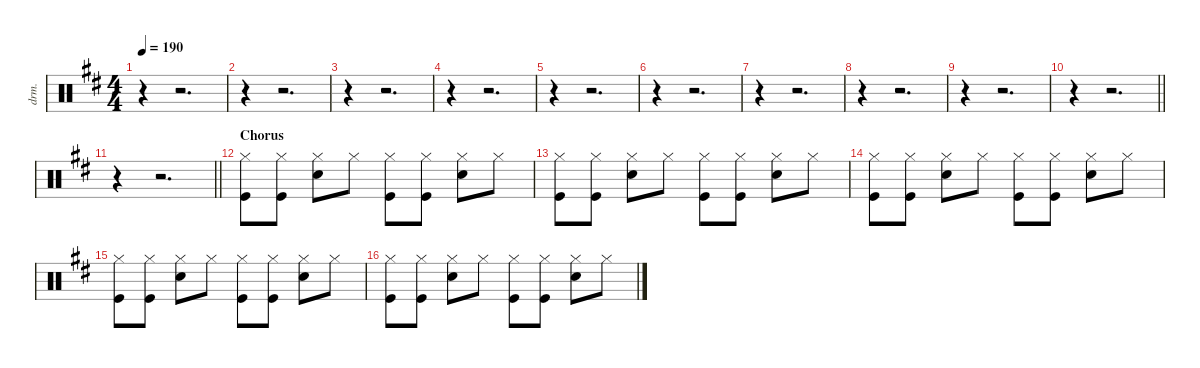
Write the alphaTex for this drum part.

\defaultSystemsLayout 4
\hideDynamics
\bracketExtendMode nobrackets
\otherSystemsTrackNameOrientation horizontal
\track ("Damon Wilson" "drm.") {instrument percussion}
\staff {score}
\articulation defaults
\ts (4 4)
\tempo 190
\clef neutral
\ks d
r.4{dy f beam Down} r.2{d beam Down} |
r.4{beam Down} r.2{d beam Down} |
r.4{beam Down} r.2{d beam Down} |
r.4{beam Down} r.2{d beam Down} |
r.4{beam Down} r.2{d beam Down} |
r.4{beam Down} r.2{d beam Down} |
r.4{beam Down} r.2{d beam Down} |
r.4{beam Down} r.2{d beam Down} |
r.4{beam Down} r.2{d beam Down} |
\barLineRight lightlight
r.4{beam Down} r.2{d beam Down} |
\barLineRight lightlight
r.4{beam Down} r.2{d beam Down} |
\section ("" "Chorus")
("Hi-Hat (closed)"{acc forcenatural} "Kick (hit)"{acc forcenatural}).8{beam Down} ("Hi-Hat (closed)"{acc forcenatural} "Kick (hit)"{acc forcenatural}).8{beam Down} ("Hi-Hat (closed)"{acc forcenatural} "Snare (hit) 2"{acc forcenatural}).8{beam Down} "Hi-Hat (closed)"{acc forcenatural}.8{beam Down} ("Hi-Hat (closed)"{acc forcenatural} "Kick (hit)"{acc forcenatural}).8{beam Down} ("Hi-Hat (closed)"{acc forcenatural} "Kick (hit)"{acc forcenatural}).8{beam Down} ("Hi-Hat (closed)"{acc forcenatural} "Snare (hit) 2"{acc forcenatural}).8{beam Down} "Hi-Hat (closed)"{acc forcenatural}.8{beam Down} |
("Hi-Hat (closed)"{acc forcenatural} "Kick (hit)"{acc forcenatural}).8{beam Down} ("Hi-Hat (closed)"{acc forcenatural} "Kick (hit)"{acc forcenatural}).8{beam Down} ("Hi-Hat (closed)"{acc forcenatural} "Snare (hit) 2"{acc forcenatural}).8{beam Down} "Hi-Hat (closed)"{acc forcenatural}.8{beam Down} ("Hi-Hat (closed)"{acc forcenatural} "Kick (hit)"{acc forcenatural}).8{beam Down} ("Hi-Hat (closed)"{acc forcenatural} "Kick (hit)"{acc forcenatural}).8{beam Down} ("Hi-Hat (closed)"{acc forcenatural} "Snare (hit) 2"{acc forcenatural}).8{beam Down} "Hi-Hat (closed)"{acc forcenatural}.8{beam Down} |
("Hi-Hat (closed)"{acc forcenatural} "Kick (hit)"{acc forcenatural}).8{beam Down} ("Hi-Hat (closed)"{acc forcenatural} "Kick (hit)"{acc forcenatural}).8{beam Down} ("Hi-Hat (closed)"{acc forcenatural} "Snare (hit) 2"{acc forcenatural}).8{beam Down} "Hi-Hat (closed)"{acc forcenatural}.8{beam Down} ("Hi-Hat (closed)"{acc forcenatural} "Kick (hit)"{acc forcenatural}).8{beam Down} ("Hi-Hat (closed)"{acc forcenatural} "Kick (hit)"{acc forcenatural}).8{beam Down} ("Hi-Hat (closed)"{acc forcenatural} "Snare (hit) 2"{acc forcenatural}).8{beam Down} "Hi-Hat (closed)"{acc forcenatural}.8{beam Down} |
("Hi-Hat (closed)"{acc forcenatural} "Kick (hit)"{acc forcenatural}).8{beam Down} ("Hi-Hat (closed)"{acc forcenatural} "Kick (hit)"{acc forcenatural}).8{beam Down} ("Hi-Hat (closed)"{acc forcenatural} "Snare (hit) 2"{acc forcenatural}).8{beam Down} "Hi-Hat (closed)"{acc forcenatural}.8{beam Down} ("Hi-Hat (closed)"{acc forcenatural} "Kick (hit)"{acc forcenatural}).8{beam Down} ("Hi-Hat (closed)"{acc forcenatural} "Kick (hit)"{acc forcenatural}).8{beam Down} ("Hi-Hat (closed)"{acc forcenatural} "Snare (hit) 2"{acc forcenatural}).8{beam Down} "Hi-Hat (closed)"{acc forcenatural}.8{beam Down} |
("Hi-Hat (closed)"{acc forcenatural} "Kick (hit)"{acc forcenatural}).8{beam Down} ("Hi-Hat (closed)"{acc forcenatural} "Kick (hit)"{acc forcenatural}).8{beam Down} ("Hi-Hat (closed)"{acc forcenatural} "Snare (hit) 2"{acc forcenatural}).8{beam Down} "Hi-Hat (closed)"{acc forcenatural}.8{beam Down} ("Hi-Hat (closed)"{acc forcenatural} "Kick (hit)"{acc forcenatural}).8{beam Down} ("Hi-Hat (closed)"{acc forcenatural} "Kick (hit)"{acc forcenatural}).8{beam Down} ("Hi-Hat (closed)"{acc forcenatural} "Snare (hit) 2"{acc forcenatural}).8{beam Down} "Hi-Hat (closed)"{acc forcenatural}.8{beam Down}
